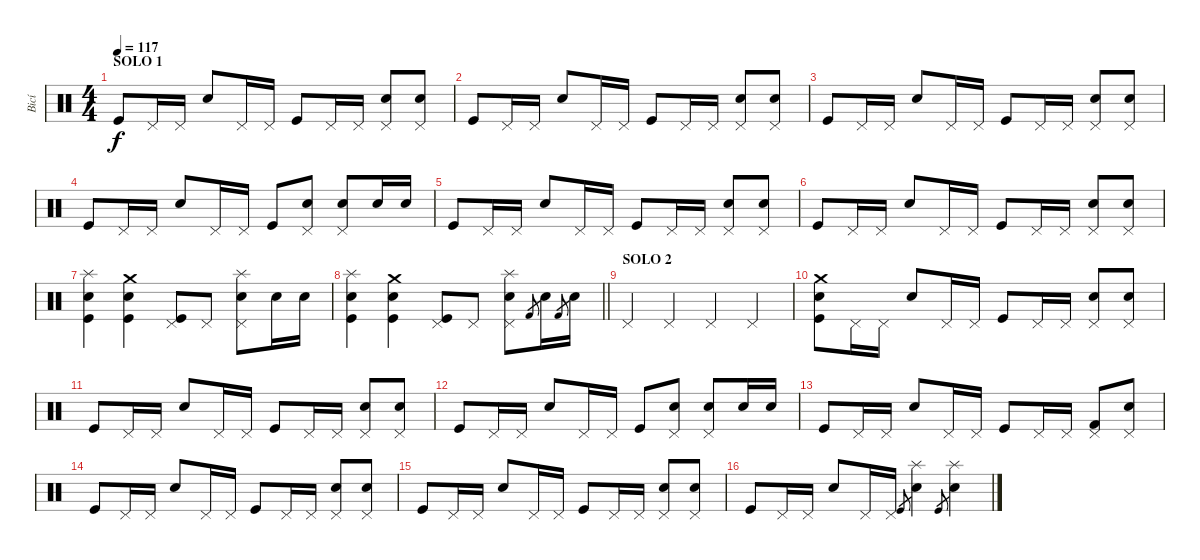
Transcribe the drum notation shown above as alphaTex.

\track ("Bicí" "Bicí") {instrument percussion}
\staff {score}
\articulation defaults
\ts (4 4)
\section ("" "SOLO 1")
\tempo 117
\clef neutral
\ks c "Kick (hit)".8{dy f} "Pedal Hi-Hat (hit)".16 "Pedal Hi-Hat (hit)".16 "Electric Snare (hit)".8 "Pedal Hi-Hat (hit)".16 "Pedal Hi-Hat (hit)".16 "Kick (hit)".8 "Pedal Hi-Hat (hit)".16 "Pedal Hi-Hat (hit)".16
("Pedal Hi-Hat (hit)" "Electric Snare (hit)").8 ("Pedal Hi-Hat (hit)" "Electric Snare (hit)").8 |
"Kick (hit)".8 "Pedal Hi-Hat (hit)".16 "Pedal Hi-Hat (hit)".16 "Electric Snare (hit)".8 "Pedal Hi-Hat (hit)".16 "Pedal Hi-Hat (hit)".16 "Kick (hit)".8 "Pedal Hi-Hat (hit)".16 "Pedal Hi-Hat (hit)".16 ("Pedal Hi-Hat (hit)" "Electric Snare (hit)").8 ("Pedal Hi-Hat (hit)" "Electric Snare (hit)").8 |
"Kick (hit)".8 "Pedal Hi-Hat (hit)".16 "Pedal Hi-Hat (hit)".16 "Electric Snare (hit)".8 "Pedal Hi-Hat (hit)".16 "Pedal Hi-Hat (hit)".16 "Kick (hit)".8 "Pedal Hi-Hat (hit)".16 "Pedal Hi-Hat (hit)".16 ("Pedal Hi-Hat (hit)" "Electric Snare (hit)").8 ("Pedal Hi-Hat (hit)" "Electric Snare (hit)").8 |
"Kick (hit)".8 "Pedal Hi-Hat (hit)".16 "Pedal Hi-Hat (hit)".16 "Electric Snare (hit)".8 "Pedal Hi-Hat (hit)".16 "Pedal Hi-Hat (hit)".16 "Kick (hit)".8 ("Pedal Hi-Hat (hit)" "Electric Snare (hit)").8 ("Pedal Hi-Hat (hit)" "Electric Snare (hit)").8 "Electric Snare (hit)".16 "Electric Snare (hit)".16 |
"Kick (hit)".8 "Pedal Hi-Hat (hit)".16 "Pedal Hi-Hat (hit)".16 "Electric Snare (hit)".8 "Pedal Hi-Hat (hit)".16 "Pedal Hi-Hat (hit)".16 "Kick (hit)".8 "Pedal Hi-Hat (hit)".16 "Pedal Hi-Hat (hit)".16 ("Pedal Hi-Hat (hit)" "Electric Snare (hit)").8 ("Pedal Hi-Hat (hit)" "Electric Snare (hit)").8 |
"Kick (hit)".8 "Pedal Hi-Hat (hit)".16 "Pedal Hi-Hat (hit)".16 "Electric Snare (hit)".8 "Pedal Hi-Hat (hit)".16 "Pedal Hi-Hat (hit)".16 "Kick (hit)".8 "Pedal Hi-Hat (hit)".16 "Pedal Hi-Hat (hit)".16 ("Pedal Hi-Hat (hit)" "Electric Snare (hit)").8 ("Pedal Hi-Hat (hit)" "Electric Snare (hit)").8 |
("Splash (hit)" "Electric Snare (hit)" "Kick (hit)").4 ("Crash medium (hit)" "Electric Snare (hit)" "Kick (hit)").4 ("Pedal Hi-Hat (hit)" "Kick (hit)").8 "Pedal Hi-Hat (hit)".8 ("Pedal Hi-Hat (hit)" "Splash (hit)" "Electric Snare (hit)").8 "Electric Snare (hit)".16 "Electric Snare (hit)".16 |
\barLineRight lightlight
("Splash (hit)" "Electric Snare (hit)" "Kick (hit)").4 ("Crash medium (hit)" "Electric Snare (hit)" "Kick (hit)").4 ("Pedal Hi-Hat (hit)" "Kick (hit)").8 "Pedal Hi-Hat (hit)".8 ("Pedal Hi-Hat (hit)" "Splash (hit)" "Electric Snare (hit)").8 "Kick (hit) 2".8{gr} "Electric Snare (hit)".16 "Kick (hit) 2".8{gr} "Electric Snare (hit)".16 |
\section ("" "SOLO 2")
"Pedal Hi-Hat (hit)".4 "Pedal Hi-Hat (hit)".4 "Pedal Hi-Hat (hit)".4 "Pedal Hi-Hat (hit)".4 |
("Crash medium (hit)" "Electric Snare (hit)" "Kick (hit)").8 "Pedal Hi-Hat (hit)".16 "Pedal Hi-Hat (hit)".16 "Electric Snare (hit)".8 "Pedal Hi-Hat (hit)".16 "Pedal Hi-Hat (hit)".16 "Kick (hit)".8 "Pedal Hi-Hat (hit)".16 "Pedal Hi-Hat (hit)".16 ("Pedal Hi-Hat (hit)" "Electric Snare (hit)").8 ("Pedal Hi-Hat (hit)" "Electric Snare (hit)").8 |
"Kick (hit)".8 "Pedal Hi-Hat (hit)".16 "Pedal Hi-Hat (hit)".16 "Electric Snare (hit)".8 "Pedal Hi-Hat (hit)".16 "Pedal Hi-Hat (hit)".16 "Kick (hit)".8 "Pedal Hi-Hat (hit)".16 "Pedal Hi-Hat (hit)".16 ("Pedal Hi-Hat (hit)" "Electric Snare (hit)").8 ("Pedal Hi-Hat (hit)" "Electric Snare (hit)").8 |
"Kick (hit)".8 "Pedal Hi-Hat (hit)".16 "Pedal Hi-Hat (hit)".16 "Electric Snare (hit)".8 "Pedal Hi-Hat (hit)".16 "Pedal Hi-Hat (hit)".16 "Kick (hit)".8 ("Pedal Hi-Hat (hit)" "Electric Snare (hit)").8 ("Pedal Hi-Hat (hit)" "Electric Snare (hit)").8 "Electric Snare (hit)".16 "Electric Snare (hit)".16 |
"Kick (hit)".8 "Pedal Hi-Hat (hit)".16 "Pedal Hi-Hat (hit)".16 "Electric Snare (hit)".8 "Pedal Hi-Hat (hit)".16 "Pedal Hi-Hat (hit)".16 "Kick (hit)".8 "Pedal Hi-Hat (hit)".16 "Pedal Hi-Hat (hit)".16 ("Pedal Hi-Hat (hit)" "Kick (hit) 2").8 ("Pedal Hi-Hat (hit)" "Electric Snare (hit)").8 |
"Kick (hit)".8 "Pedal Hi-Hat (hit)".16 "Pedal Hi-Hat (hit)".16 "Electric Snare (hit)".8 "Pedal Hi-Hat (hit)".16 "Pedal Hi-Hat (hit)".16 "Kick (hit)".8 "Pedal Hi-Hat (hit)".16 "Pedal Hi-Hat (hit)".16 ("Pedal Hi-Hat (hit)" "Electric Snare (hit)").8 ("Pedal Hi-Hat (hit)" "Electric Snare (hit)").8 |
"Kick (hit)".8 "Pedal Hi-Hat (hit)".16 "Pedal Hi-Hat (hit)".16 "Electric Snare (hit)".8 "Pedal Hi-Hat (hit)".16 "Pedal Hi-Hat (hit)".16 "Kick (hit)".8 "Pedal Hi-Hat (hit)".16 "Pedal Hi-Hat (hit)".16 ("Pedal Hi-Hat (hit)" "Electric Snare (hit)").8 ("Pedal Hi-Hat (hit)" "Electric Snare (hit)").8 |
"Kick (hit)".8 "Pedal Hi-Hat (hit)".16 "Pedal Hi-Hat (hit)".16 "Electric Snare (hit)".8 "Pedal Hi-Hat (hit)".16 "Pedal Hi-Hat (hit)".16 "Kick (hit)".8{gr} ("Splash (hit)" "Electric Snare (hit)").4 "Kick (hit)".8{gr} ("Splash (hit)" "Electric Snare (hit)").4
